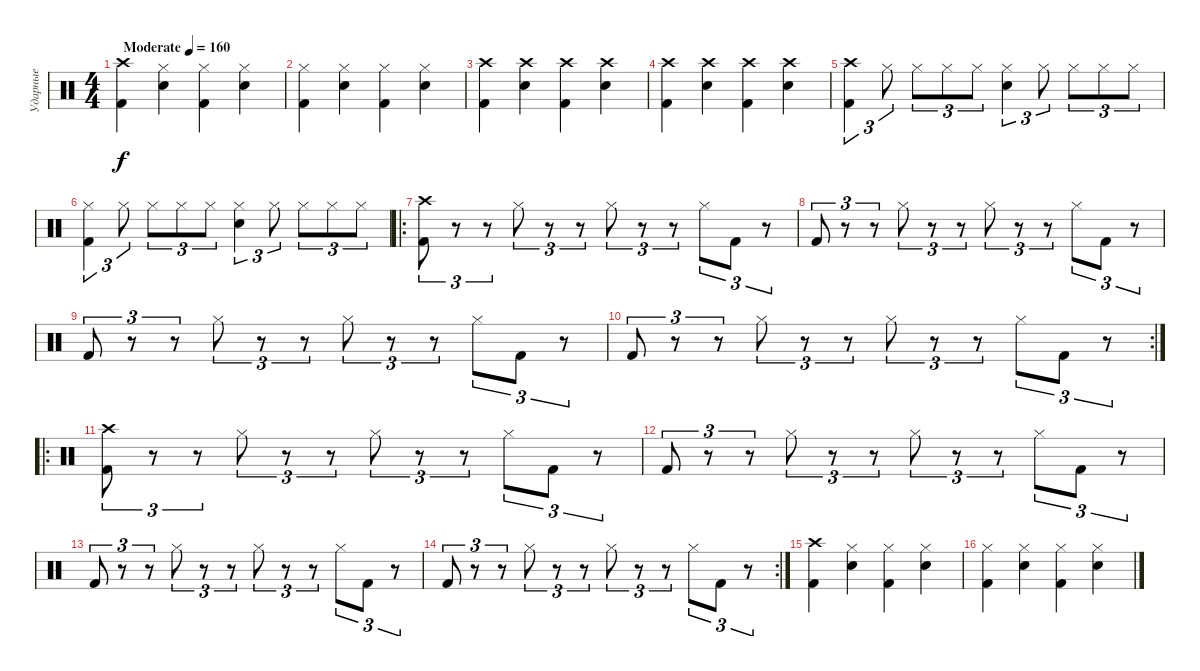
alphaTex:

\track ("Ударные" "Ударные") {instrument percussion}
\staff {score}
\articulation defaults
\ts (4 4)
\tempo (160 "Moderate")
\clef neutral
\ks c
("Kick (hit) 2" "Crash high (hit)").4{dy f} ("Snare (hit) 2" "Hi-Hat (closed)").4 ("Kick (hit) 2" "Hi-Hat (closed)").4 ("Snare (hit) 2" "Hi-Hat (closed)").4 |
("Kick (hit) 2" "Hi-Hat (closed)").4 ("Snare (hit) 2" "Hi-Hat (closed)").4 ("Kick (hit) 2" "Hi-Hat (closed)").4 ("Snare (hit) 2" "Hi-Hat (closed)").4 |
("Kick (hit) 2" "Crash high (hit)").4 ("Snare (hit) 2" "Crash high (hit)").4 ("Kick (hit) 2" "Crash high (hit)").4 ("Snare (hit) 2" "Crash high (hit)").4 |
("Kick (hit) 2" "Crash high (hit)").4 ("Snare (hit) 2" "Crash high (hit)").4 ("Kick (hit) 2" "Crash high (hit)").4 ("Snare (hit) 2" "Crash high (hit)").4 |
("Kick (hit) 2" "Crash high (hit)").4{tu (3 2)} "Hi-Hat (closed)".8{tu (3 2)} "Hi-Hat (closed)".8{tu (3 2)} "Hi-Hat (closed)".8{tu (3 2)} "Hi-Hat (closed)".8{tu (3 2)} ("Hi-Hat (closed)" "Snare (hit) 2").4{tu (3 2)} "Hi-Hat (closed)".8{tu (3 2)} "Hi-Hat (closed)".8{tu (3 2)} "Hi-Hat (closed)".8{tu (3 2)} "Hi-Hat (closed)".8{tu (3 2)} |
("Kick (hit) 2" "Hi-Hat (closed)").4{tu (3 2)} "Hi-Hat (closed)".8{tu (3 2)} "Hi-Hat (closed)".8{tu (3 2)} "Hi-Hat (closed)".8{tu (3 2)} "Hi-Hat (closed)".8{tu (3 2)} ("Hi-Hat (closed)" "Snare (hit) 2").4{tu (3 2)} "Hi-Hat (closed)".8{tu (3 2)} "Hi-Hat (closed)".8{tu (3 2)} "Hi-Hat (closed)".8{tu (3 2)} "Hi-Hat (closed)".8{tu (3 2)} |
\ro
("Kick (hit) 2" "Crash high (hit)").8{tu (3 2)} r.8{tu (3 2)} r.8{tu (3 2)} "Hi-Hat (closed)".8{tu (3 2)} r.8{tu (3 2)} r.8{tu (3 2)} "Hi-Hat (closed)".8{tu (3 2)} r.8{tu (3 2)} r.8{tu (3 2)} "Hi-Hat (closed)".8{tu (3 2)} "Kick (hit) 2".8{tu (3 2)} r.8{tu (3 2)} |
"Kick (hit) 2".8{tu (3 2)} r.8{tu (3 2)} r.8{tu (3 2)} "Hi-Hat (closed)".8{tu (3 2)} r.8{tu (3 2)} r.8{tu (3 2)} "Hi-Hat (closed)".8{tu (3 2)} r.8{tu (3 2)} r.8{tu (3 2)} "Hi-Hat (closed)".8{tu (3 2)} "Kick (hit) 2".8{tu (3 2)} r.8{tu (3 2)} |
"Kick (hit) 2".8{tu (3 2)} r.8{tu (3 2)} r.8{tu (3 2)} "Hi-Hat (closed)".8{tu (3 2)} r.8{tu (3 2)} r.8{tu (3 2)} "Hi-Hat (closed)".8{tu (3 2)} r.8{tu (3 2)} r.8{tu (3 2)} "Hi-Hat (closed)".8{tu (3 2)} "Kick (hit) 2".8{tu (3 2)} r.8{tu (3 2)} |
\rc 2 "Kick (hit) 2".8{tu (3 2)}
r.8{tu (3 2)} r.8{tu (3 2)} "Hi-Hat (closed)".8{tu (3 2)} r.8{tu (3 2)} r.8{tu (3 2)} "Hi-Hat (closed)".8{tu (3 2)} r.8{tu (3 2)} r.8{tu (3 2)} "Hi-Hat (closed)".8{tu (3 2)} "Kick (hit) 2".8{tu (3 2)} r.8{tu (3 2)} |
\ro
("Kick (hit) 2" "Crash high (hit)").8{tu (3 2)} r.8{tu (3 2)} r.8{tu (3 2)} "Hi-Hat (closed)".8{tu (3 2)} r.8{tu (3 2)} r.8{tu (3 2)} "Hi-Hat (closed)".8{tu (3 2)} r.8{tu (3 2)} r.8{tu (3 2)} "Hi-Hat (closed)".8{tu (3 2)} "Kick (hit) 2".8{tu (3 2)} r.8{tu (3 2)} |
"Kick (hit) 2".8{tu (3 2)} r.8{tu (3 2)} r.8{tu (3 2)} "Hi-Hat (closed)".8{tu (3 2)} r.8{tu (3 2)} r.8{tu (3 2)} "Hi-Hat (closed)".8{tu (3 2)} r.8{tu (3 2)} r.8{tu (3 2)} "Hi-Hat (closed)".8{tu (3 2)} "Kick (hit) 2".8{tu (3 2)} r.8{tu (3 2)} |
"Kick (hit) 2".8{tu (3 2)} r.8{tu (3 2)} r.8{tu (3 2)} "Hi-Hat (closed)".8{tu (3 2)} r.8{tu (3 2)} r.8{tu (3 2)} "Hi-Hat (closed)".8{tu (3 2)} r.8{tu (3 2)} r.8{tu (3 2)} "Hi-Hat (closed)".8{tu (3 2)} "Kick (hit) 2".8{tu (3 2)} r.8{tu (3 2)} |
\rc 2 "Kick (hit) 2".8{tu (3 2)}
r.8{tu (3 2)} r.8{tu (3 2)} "Hi-Hat (closed)".8{tu (3 2)} r.8{tu (3 2)} r.8{tu (3 2)} "Hi-Hat (closed)".8{tu (3 2)} r.8{tu (3 2)} r.8{tu (3 2)} "Hi-Hat (closed)".8{tu (3 2)} "Kick (hit) 2".8{tu (3 2)} r.8{tu (3 2)} |
("Kick (hit) 2" "Crash high (hit)").4 ("Snare (hit) 2" "Hi-Hat (closed)").4 ("Kick (hit) 2" "Hi-Hat (closed)").4 ("Snare (hit) 2" "Hi-Hat (closed)").4 |
("Kick (hit) 2" "Hi-Hat (closed)").4 ("Snare (hit) 2" "Hi-Hat (closed)").4 ("Kick (hit) 2" "Hi-Hat (closed)").4 ("Snare (hit) 2" "Hi-Hat (closed)").4
